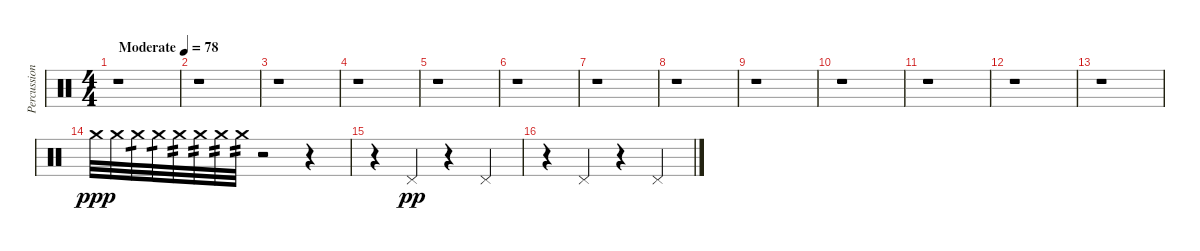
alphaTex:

\track ("Percussion" "Percussion") {instrument percussion}
\staff {score}
\articulation defaults
\ts (4 4)
\tempo (78 "Moderate")
\clef neutral
\ks c
r.1{dy ppp} |
r.1 |
r.1 |
r.1 |
r.1 |
r.1 |
r.1 |
r.1 |
r.1 |
r.1 |
r.1 |
r.1 |
r.1 |
"Crash medium (hit)".32 "Crash medium (hit)".32 "Crash medium (hit)".32{tp 1} "Crash medium (hit)".32{tp 1} "Crash medium (hit)".32{tp 2} "Crash medium (hit)".32{tp 2} "Crash medium (hit)".32{tp 2} "Crash medium (hit)".32{tp 2} r.2 r.4 |
r.4 "Pedal Hi-Hat (hit)".4{dy pp} r.4 "Pedal Hi-Hat (hit)".4 |
r.4 "Pedal Hi-Hat (hit)".4 r.4 "Pedal Hi-Hat (hit)".4
